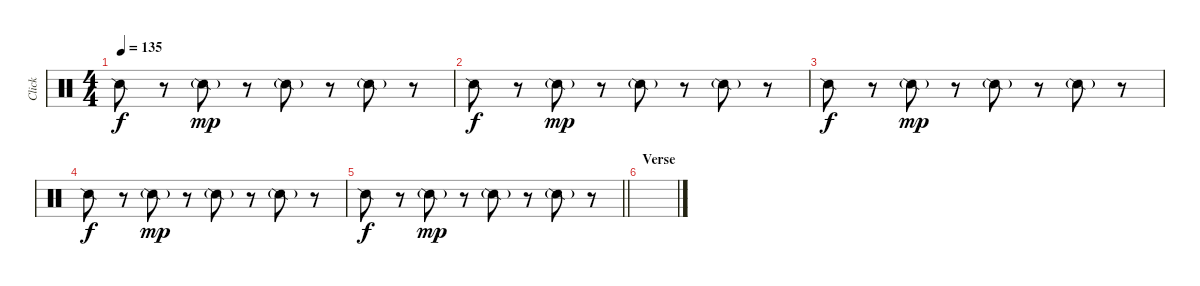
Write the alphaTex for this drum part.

\track ("Click" "Click") {mute instrument percussion}
\staff {score}
\articulation defaults
\ts (4 4)
\tempo 135
\clef neutral
\ks c "Snare (side stick) 2".8{dy f}
r.8 "Snare (side stick) 2"{g}.8{dy mp} r.8 "Snare (side stick) 2"{g}.8 r.8 "Snare (side stick) 2"{g}.8 r.8 |
"Snare (side stick) 2".8{dy f} r.8 "Snare (side stick) 2"{g}.8{dy mp} r.8 "Snare (side stick) 2"{g}.8 r.8 "Snare (side stick) 2"{g}.8 r.8 |
"Snare (side stick) 2".8{dy f} r.8 "Snare (side stick) 2"{g}.8{dy mp} r.8 "Snare (side stick) 2"{g}.8 r.8 "Snare (side stick) 2"{g}.8 r.8 |
"Snare (side stick) 2".8{dy f} r.8 "Snare (side stick) 2"{g}.8{dy mp} r.8 "Snare (side stick) 2"{g}.8 r.8 "Snare (side stick) 2"{g}.8 r.8 |
\barLineRight lightlight "Snare (side stick) 2".8{dy f}
r.8 "Snare (side stick) 2"{g}.8{dy mp} r.8 "Snare (side stick) 2"{g}.8 r.8 "Snare (side stick) 2"{g}.8 r.8 |
\section ("" "Verse")
